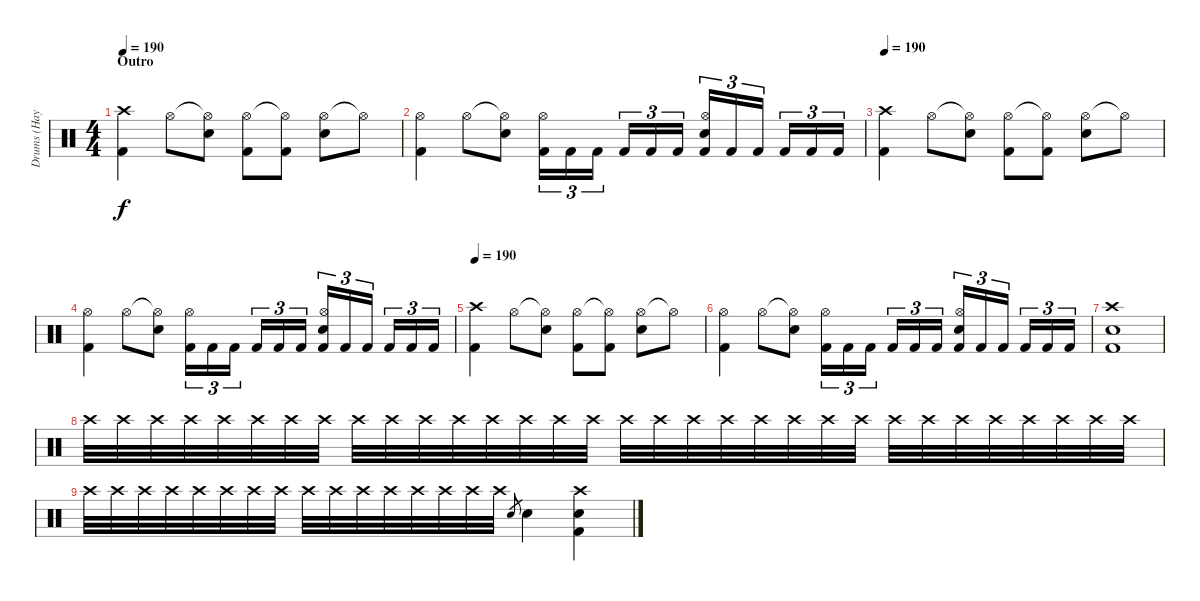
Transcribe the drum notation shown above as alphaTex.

\track ("Drums (Hayden)" "Drums (Hay") {instrument percussion}
\staff {score}
\articulation defaults
\ts (4 4)
\section ("" "Outro")
\tempo 190
\clef neutral
\ks c
("Crash high (hit)" "Kick (hit) 2").4{dy f} "Hi-Hat (open)".8 ("Hi-Hat (open)"{t} "Electric Snare (hit)").8 ("Hi-Hat (open)" "Kick (hit) 2").8 ("Hi-Hat (open)"{t} "Kick (hit) 2").8 ("Hi-Hat (open)" "Electric Snare (hit)").8 "Hi-Hat (open)"{t}.8 |
("Hi-Hat (open)" "Kick (hit) 2").4 "Hi-Hat (open)".8 ("Hi-Hat (open)"{t} "Electric Snare (hit)").8 ("Kick (hit) 2" "Hi-Hat (open)").16{tu (3 2)} "Kick (hit) 2".16{tu (3 2)} "Kick (hit) 2".16{tu (3 2)} "Kick (hit) 2".16{tu (3 2)} "Kick (hit) 2".16{tu (3 2)} "Kick (hit) 2".16{tu (3 2)} ("Kick (hit) 2" "Hi-Hat (open)" "Electric Snare (hit)").16{tu (3 2)} "Kick (hit) 2".16{tu (3 2)} "Kick (hit) 2".16{tu (3 2)} "Kick (hit) 2".16{tu (3 2)} "Kick (hit) 2".16{tu (3 2)} "Kick (hit) 2".16{tu (3 2)} |
\tempo 190
("Crash high (hit)" "Kick (hit) 2").4 "Hi-Hat (open)".8 ("Hi-Hat (open)"{t} "Electric Snare (hit)").8 ("Hi-Hat (open)" "Kick (hit) 2").8 ("Hi-Hat (open)"{t} "Kick (hit) 2").8 ("Hi-Hat (open)" "Electric Snare (hit)").8 "Hi-Hat (open)"{t}.8 |
("Hi-Hat (open)" "Kick (hit) 2").4 "Hi-Hat (open)".8 ("Hi-Hat (open)"{t} "Electric Snare (hit)").8 ("Kick (hit) 2" "Hi-Hat (open)").16{tu (3 2)} "Kick (hit) 2".16{tu (3 2)} "Kick (hit) 2".16{tu (3 2)} "Kick (hit) 2".16{tu (3 2)} "Kick (hit) 2".16{tu (3 2)} "Kick (hit) 2".16{tu (3 2)} ("Kick (hit) 2" "Hi-Hat (open)" "Electric Snare (hit)").16{tu (3 2)} "Kick (hit) 2".16{tu (3 2)} "Kick (hit) 2".16{tu (3 2)} "Kick (hit) 2".16{tu (3 2)} "Kick (hit) 2".16{tu (3 2)} "Kick (hit) 2".16{tu (3 2)} |
\tempo 190
("Crash high (hit)" "Kick (hit) 2").4 "Hi-Hat (open)".8 ("Hi-Hat (open)"{t} "Electric Snare (hit)").8 ("Hi-Hat (open)" "Kick (hit) 2").8 ("Hi-Hat (open)"{t} "Kick (hit) 2").8 ("Hi-Hat (open)" "Electric Snare (hit)").8 "Hi-Hat (open)"{t}.8 |
("Hi-Hat (open)" "Kick (hit) 2").4 "Hi-Hat (open)".8 ("Hi-Hat (open)"{t} "Electric Snare (hit)").8 ("Kick (hit) 2" "Hi-Hat (open)").16{tu (3 2)} "Kick (hit) 2".16{tu (3 2)} "Kick (hit) 2".16{tu (3 2)} "Kick (hit) 2".16{tu (3 2)} "Kick (hit) 2".16{tu (3 2)} "Kick (hit) 2".16{tu (3 2)} ("Kick (hit) 2" "Hi-Hat (open)" "Electric Snare (hit)").16{tu (3 2)} "Kick (hit) 2".16{tu (3 2)} "Kick (hit) 2".16{tu (3 2)} "Kick (hit) 2".16{tu (3 2)} "Kick (hit) 2".16{tu (3 2)} "Kick (hit) 2".16{tu (3 2)} |
("Crash high (hit)" "Electric Snare (hit)" "Kick (hit) 2").1 |
"Crash high (hit)".32 "Crash high (hit)".32 "Crash high (hit)".32 "Crash high (hit)".32 "Crash high (hit)".32 "Crash high (hit)".32 "Crash high (hit)".32 "Crash high (hit)".32 "Crash high (hit)".32 "Crash high (hit)".32 "Crash high (hit)".32 "Crash high (hit)".32 "Crash high (hit)".32 "Crash high (hit)".32 "Crash high (hit)".32 "Crash high (hit)".32 "Crash high (hit)".32 "Crash high (hit)".32 "Crash high (hit)".32 "Crash high (hit)".32 "Crash high (hit)".32 "Crash high (hit)".32 "Crash high (hit)".32 "Crash high (hit)".32 "Crash high (hit)".32 "Crash high (hit)".32 "Crash high (hit)".32 "Crash high (hit)".32 "Crash high (hit)".32 "Crash high (hit)".32 "Crash high (hit)".32 "Crash high (hit)".32 |
"Crash high (hit)".32 "Crash high (hit)".32 "Crash high (hit)".32 "Crash high (hit)".32 "Crash high (hit)".32 "Crash high (hit)".32 "Crash high (hit)".32 "Crash high (hit)".32 "Crash high (hit)".32 "Crash high (hit)".32 "Crash high (hit)".32 "Crash high (hit)".32 "Crash high (hit)".32 "Crash high (hit)".32 "Crash high (hit)".32 "Crash high (hit)".32 "Electric Snare (hit)".8{gr} "Electric Snare (hit)".4 ("Crash high (hit)" "Electric Snare (hit)" "Kick (hit) 2").4
